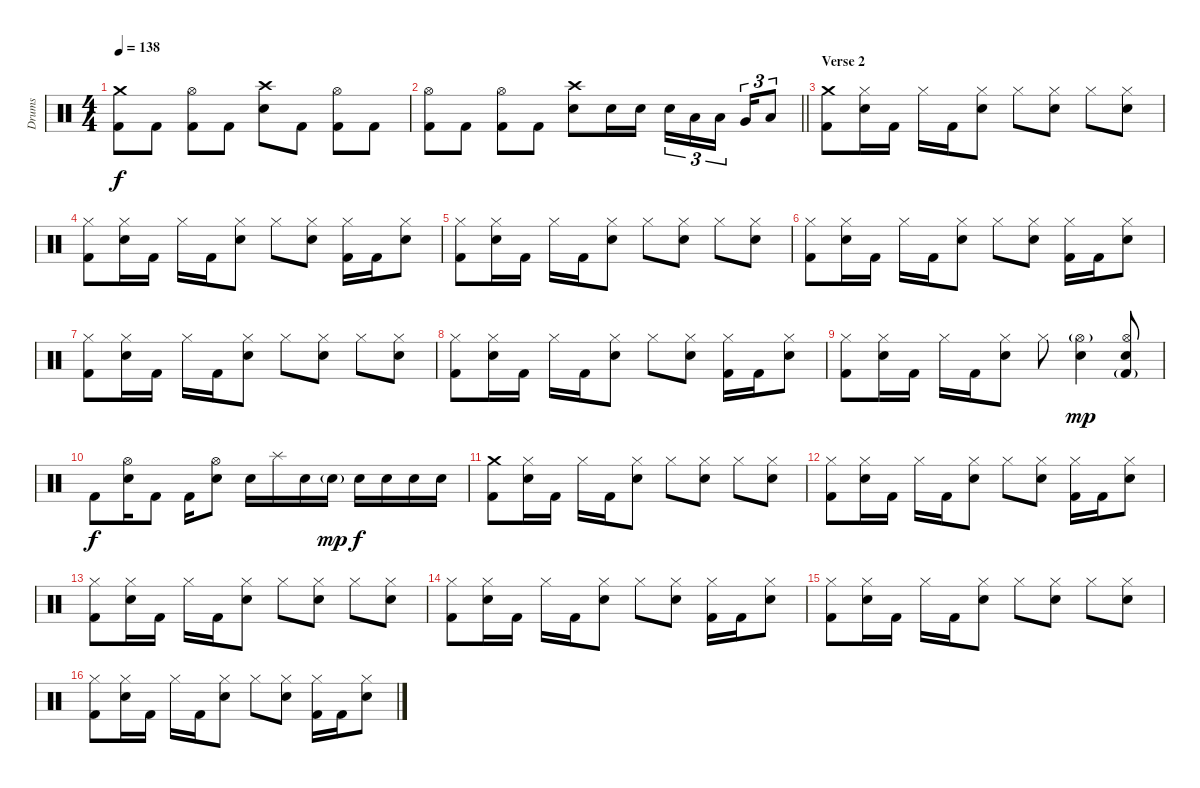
\track ("Drums" "Drums") {instrument percussion}
\staff {score}
\articulation defaults
\ts (4 4)
\tempo 138
\clef neutral
\ks c
("Crash medium (hit)" "Kick (hit) 2").8{dy f} "Kick (hit) 2".8 ("Hi-Hat (open)" "Kick (hit) 2").8 "Kick (hit) 2".8 ("Crash high (hit)" "Electric Snare (hit)").8 "Kick (hit) 2".8 ("Hi-Hat (open)" "Kick (hit) 2").8 "Kick (hit) 2".8 |
\barLineRight lightlight
("Hi-Hat (open)" "Kick (hit) 2").8 "Kick (hit) 2".8 ("Hi-Hat (open)" "Kick (hit) 2").8 "Kick (hit) 2".8 ("Crash high (hit)" "Electric Snare (hit)").8 "Electric Snare (hit)".16 "Electric Snare (hit)".16 "Electric Snare (hit)".16{tu (3 2)} "Low Tom (hit)".16{tu (3 2)} "Low Tom (hit)".16{tu (3 2) beam splitsecondary} "Very Low Tom (hit)".16{tu (3 2)} "Low Floor Tom (hit)".8{tu (3 2)} |
\section ("" "Verse 2")
("Crash medium (hit)" "Kick (hit) 2").8 ("Hi-Hat (closed)" "Electric Snare (hit)").16 "Kick (hit) 2".16 "Hi-Hat (closed)".16 "Kick (hit) 2".16 ("Hi-Hat (closed)" "Electric Snare (hit)").8 "Hi-Hat (closed)".8 ("Hi-Hat (closed)" "Electric Snare (hit)").8 "Hi-Hat (closed)".8 ("Hi-Hat (closed)" "Electric Snare (hit)").8 |
("Hi-Hat (closed)" "Kick (hit) 2").8 ("Hi-Hat (closed)" "Electric Snare (hit)").16 "Kick (hit) 2".16 "Hi-Hat (closed)".16 "Kick (hit) 2".16 ("Hi-Hat (closed)" "Electric Snare (hit)").8 "Hi-Hat (closed)".8 ("Hi-Hat (closed)" "Electric Snare (hit)").8 ("Hi-Hat (closed)" "Kick (hit) 2").16 "Kick (hit) 2".16 ("Hi-Hat (closed)" "Electric Snare (hit)").8 |
("Hi-Hat (closed)" "Kick (hit) 2").8 ("Hi-Hat (closed)" "Electric Snare (hit)").16 "Kick (hit) 2".16 "Hi-Hat (closed)".16 "Kick (hit) 2".16 ("Hi-Hat (closed)" "Electric Snare (hit)").8 "Hi-Hat (closed)".8 ("Hi-Hat (closed)" "Electric Snare (hit)").8 "Hi-Hat (closed)".8 ("Hi-Hat (closed)" "Electric Snare (hit)").8 |
("Hi-Hat (closed)" "Kick (hit) 2").8 ("Hi-Hat (closed)" "Electric Snare (hit)").16 "Kick (hit) 2".16 "Hi-Hat (closed)".16 "Kick (hit) 2".16 ("Hi-Hat (closed)" "Electric Snare (hit)").8 "Hi-Hat (closed)".8 ("Hi-Hat (closed)" "Electric Snare (hit)").8 ("Hi-Hat (closed)" "Kick (hit) 2").16 "Kick (hit) 2".16 ("Hi-Hat (closed)" "Electric Snare (hit)").8 |
("Hi-Hat (closed)" "Kick (hit) 2").8 ("Hi-Hat (closed)" "Electric Snare (hit)").16 "Kick (hit) 2".16 "Hi-Hat (closed)".16 "Kick (hit) 2".16 ("Hi-Hat (closed)" "Electric Snare (hit)").8 "Hi-Hat (closed)".8 ("Hi-Hat (closed)" "Electric Snare (hit)").8 "Hi-Hat (closed)".8 ("Hi-Hat (closed)" "Electric Snare (hit)").8 |
("Hi-Hat (closed)" "Kick (hit) 2").8 ("Hi-Hat (closed)" "Electric Snare (hit)").16 "Kick (hit) 2".16 "Hi-Hat (closed)".16 "Kick (hit) 2".16 ("Hi-Hat (closed)" "Electric Snare (hit)").8 "Hi-Hat (closed)".8 ("Hi-Hat (closed)" "Electric Snare (hit)").8 ("Hi-Hat (closed)" "Kick (hit) 2").16 "Kick (hit) 2".16 ("Hi-Hat (closed)" "Electric Snare (hit)").8 |
("Hi-Hat (closed)" "Kick (hit) 2").8 ("Hi-Hat (closed)" "Electric Snare (hit)").16 "Kick (hit) 2".16 "Hi-Hat (closed)".16 "Kick (hit) 2".16 ("Hi-Hat (closed)" "Electric Snare (hit)").8 "Hi-Hat (closed)".8 ("Hi-Hat (open)"{g} "Electric Snare (hit)").4{dy mp} ("Hi-Hat (open)" "Electric Snare (hit)" "Kick (hit) 2"{g}).8 |
"Kick (hit) 2".8{dy f} ("Hi-Hat (open)" "Electric Snare (hit)").16 "Kick (hit) 2".8 "Kick (hit) 2".16 ("Hi-Hat (open)" "Electric Snare (hit)").8 "Electric Snare (hit)".16 "Splash (hit)".16 "Electric Snare (hit)".16 "Electric Snare (hit)"{g}.16{dy mp} "Electric Snare (hit)".16{dy f} "Electric Snare (hit)".16 "Electric Snare (hit)".16 "Electric Snare (hit)".16 |
("Crash medium (hit)" "Kick (hit) 2").8 ("Hi-Hat (closed)" "Electric Snare (hit)").16 "Kick (hit) 2".16 "Hi-Hat (closed)".16 "Kick (hit) 2".16 ("Hi-Hat (closed)" "Electric Snare (hit)").8 "Hi-Hat (closed)".8 ("Hi-Hat (closed)" "Electric Snare (hit)").8 "Hi-Hat (closed)".8 ("Hi-Hat (closed)" "Electric Snare (hit)").8 |
("Hi-Hat (closed)" "Kick (hit) 2").8 ("Hi-Hat (closed)" "Electric Snare (hit)").16 "Kick (hit) 2".16 "Hi-Hat (closed)".16 "Kick (hit) 2".16 ("Hi-Hat (closed)" "Electric Snare (hit)").8 "Hi-Hat (closed)".8 ("Hi-Hat (closed)" "Electric Snare (hit)").8 ("Hi-Hat (closed)" "Kick (hit) 2").16 "Kick (hit) 2".16 ("Hi-Hat (closed)" "Electric Snare (hit)").8 |
("Hi-Hat (closed)" "Kick (hit) 2").8 ("Hi-Hat (closed)" "Electric Snare (hit)").16 "Kick (hit) 2".16 "Hi-Hat (closed)".16 "Kick (hit) 2".16 ("Hi-Hat (closed)" "Electric Snare (hit)").8 "Hi-Hat (closed)".8 ("Hi-Hat (closed)" "Electric Snare (hit)").8 "Hi-Hat (closed)".8 ("Hi-Hat (closed)" "Electric Snare (hit)").8 |
("Hi-Hat (closed)" "Kick (hit) 2").8 ("Hi-Hat (closed)" "Electric Snare (hit)").16 "Kick (hit) 2".16 "Hi-Hat (closed)".16 "Kick (hit) 2".16 ("Hi-Hat (closed)" "Electric Snare (hit)").8 "Hi-Hat (closed)".8 ("Hi-Hat (closed)" "Electric Snare (hit)").8 ("Hi-Hat (closed)" "Kick (hit) 2").16 "Kick (hit) 2".16 ("Hi-Hat (closed)" "Electric Snare (hit)").8 |
("Hi-Hat (closed)" "Kick (hit) 2").8 ("Hi-Hat (closed)" "Electric Snare (hit)").16 "Kick (hit) 2".16 "Hi-Hat (closed)".16 "Kick (hit) 2".16 ("Hi-Hat (closed)" "Electric Snare (hit)").8 "Hi-Hat (closed)".8 ("Hi-Hat (closed)" "Electric Snare (hit)").8 "Hi-Hat (closed)".8 ("Hi-Hat (closed)" "Electric Snare (hit)").8 |
("Hi-Hat (closed)" "Kick (hit) 2").8 ("Hi-Hat (closed)" "Electric Snare (hit)").16 "Kick (hit) 2".16 "Hi-Hat (closed)".16 "Kick (hit) 2".16 ("Hi-Hat (closed)" "Electric Snare (hit)").8 "Hi-Hat (closed)".8 ("Hi-Hat (closed)" "Electric Snare (hit)").8 ("Hi-Hat (closed)" "Kick (hit) 2").16 "Kick (hit) 2".16 ("Hi-Hat (closed)" "Electric Snare (hit)").8
